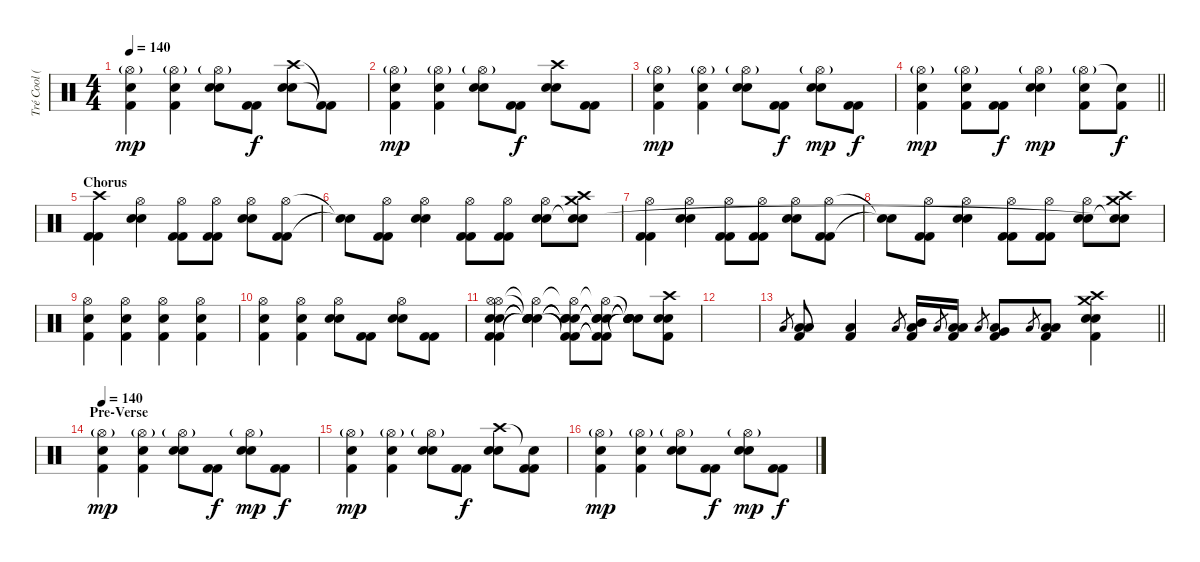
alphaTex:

\track ("Tré Cool (Drums)" "Tré Cool (") {instrument percussion}
\staff {score}
\articulation defaults
\ts (4 4)
\tempo 140
\clef neutral
\ks c
("Hi-Hat (open)"{g} "Electric Snare (hit)" "Kick (hit) 2").4{dy mp} ("Hi-Hat (open)"{g} "Electric Snare (hit)" "Kick (hit) 2").4 ("Hi-Hat (open)"{g} "Electric Snare (hit)" "Electric Snare (hit)").8 ("Kick (hit) 2" "Kick (hit) 2").8{dy f} ("Crash high (hit)" "Electric Snare (hit)" "Electric Snare (hit)").8 ("Kick (hit) 2"{t} "Kick (hit) 2"{t}).8 |
("Hi-Hat (open)"{g} "Electric Snare (hit)" "Kick (hit) 2").4{dy mp} ("Hi-Hat (open)"{g} "Electric Snare (hit)" "Kick (hit) 2").4 ("Hi-Hat (open)"{g} "Electric Snare (hit)" "Electric Snare (hit)").8 ("Kick (hit) 2" "Kick (hit) 2").8{dy f} ("Crash high (hit)" "Electric Snare (hit)" "Electric Snare (hit)").8 ("Kick (hit) 2" "Kick (hit) 2").8 |
("Hi-Hat (open)"{g} "Electric Snare (hit)" "Kick (hit) 2").4{dy mp} ("Hi-Hat (open)"{g} "Electric Snare (hit)" "Kick (hit) 2").4 ("Hi-Hat (open)"{g} "Electric Snare (hit)" "Electric Snare (hit)").8 ("Kick (hit) 2" "Kick (hit) 2").8{dy f} ("Hi-Hat (open)"{g} "Electric Snare (hit)" "Electric Snare (hit)").8{dy mp} ("Kick (hit) 2" "Kick (hit) 2").8{dy f} |
\barLineRight lightlight
("Hi-Hat (open)"{g} "Electric Snare (hit)" "Kick (hit) 2").4{dy mp} ("Hi-Hat (open)"{g} "Electric Snare (hit)" "Kick (hit) 2").8 ("Kick (hit) 2" "Kick (hit) 2").8{dy f} ("Hi-Hat (open)"{g} "Electric Snare (hit)" "Electric Snare (hit)").4{dy mp} ("Hi-Hat (open)"{g} "Electric Snare (hit)"{tr (38 64)} "Kick (hit) 2").8 ("Electric Snare (hit)"{t} "Kick (hit) 2").8{dy f} |
\section ("" "Chorus")
("Crash high (hit)" "Kick (hit) 2" "Kick (hit) 2").4 ("Hi-Hat (open)" "Electric Snare (hit)" "Electric Snare (hit)").4 ("Hi-Hat (open)" "Kick (hit) 2" "Kick (hit) 2").8 ("Hi-Hat (open)" "Kick (hit) 2" "Kick (hit) 2").8 ("Hi-Hat (open)" "Electric Snare (hit)" "Electric Snare (hit)").8 ("Hi-Hat (open)" "Kick (hit) 2" "Kick (hit) 2").8 |
("Snare (hit)"{t} "Snare (hit)"{t}).8 ("Hi-Hat (open)" "Kick (hit) 2" "Kick (hit) 2").8 ("Hi-Hat (open)" "Electric Snare (hit)" "Electric Snare (hit)").4 ("Hi-Hat (open)" "Kick (hit) 2" "Kick (hit) 2").8 ("Hi-Hat (open)" "Kick (hit) 2" "Kick (hit) 2").8 ("Hi-Hat (open)" "Electric Snare (hit)" "Electric Snare (hit)").8 ("Crash high (hit)" "Crash medium (hit)" "Snare (hit)"{t} "Snare (hit)").8 |
("Hi-Hat (open)" "Kick (hit) 2" "Kick (hit) 2").4 ("Hi-Hat (open)" "Electric Snare (hit)" "Electric Snare (hit)").4 ("Hi-Hat (open)" "Kick (hit) 2" "Kick (hit) 2").8 ("Hi-Hat (open)" "Kick (hit) 2" "Kick (hit) 2").8 ("Hi-Hat (open)" "Electric Snare (hit)" "Electric Snare (hit)").8 ("Hi-Hat (open)" "Kick (hit) 2" "Kick (hit) 2").8 |
("Snare (hit)"{t} "Snare (hit)"{t}).8 ("Hi-Hat (open)" "Kick (hit) 2" "Kick (hit) 2").8 ("Hi-Hat (open)" "Electric Snare (hit)" "Electric Snare (hit)").4 ("Hi-Hat (open)" "Kick (hit) 2" "Kick (hit) 2").8 ("Hi-Hat (open)" "Kick (hit) 2" "Kick (hit) 2").8 ("Hi-Hat (open)" "Electric Snare (hit)" "Electric Snare (hit)").8 ("Crash high (hit)" "Crash medium (hit)" "Snare (hit)"{t} "Snare (hit)"{t}).8 |
("Hi-Hat (open)" "Electric Snare (hit)" "Kick (hit) 2").4 ("Hi-Hat (open)" "Electric Snare (hit)" "Kick (hit) 2").4 ("Hi-Hat (open)" "Electric Snare (hit)" "Kick (hit) 2").4 ("Hi-Hat (open)" "Electric Snare (hit)" "Kick (hit) 2").4 |
("Hi-Hat (open)" "Electric Snare (hit)" "Kick (hit) 2").4 ("Hi-Hat (open)" "Electric Snare (hit)" "Kick (hit) 2").4 ("Hi-Hat (open)" "Electric Snare (hit)" "Electric Snare (hit)").8 ("Kick (hit) 2" "Kick (hit) 2").8 ("Hi-Hat (open)" "Electric Snare (hit)" "Electric Snare (hit)").8 ("Kick (hit) 2" "Kick (hit) 2").8 |
("Hi-Hat (open)" "Hi-Hat (open)" "Electric Snare (hit)" "Electric Snare (hit)" "Kick (hit) 2" "Kick (hit) 2").4 ("Hi-Hat (open)"{t} "Snare (hit)"{t} "Snare (hit)"{t} "Snare (hit)"{t} "Electric Snare (hit)"{t} "Electric Snare (hit)"{t}).4 ("Hi-Hat (open)"{t} "Snare (hit)"{t} "Snare (hit)"{t} "Snare (hit)"{t} "Kick (hit) 2"{t} "Kick (hit) 2"{t}).8 ("Hi-Hat (open)"{t} "Snare (hit)"{t} "Snare (hit)"{t} "Snare (hit)"{t} "Kick (hit) 2"{t} "Kick (hit) 2"{t}).8 ("Snare (hit)"{t} "Snare (hit)"{t} "Snare (hit)"{t} "Snare (hit)"{t} "Snare (hit)"{t} "Snare (hit)"{t}).8 ("Crash high (hit)" "Electric Snare (hit)" "Electric Snare (hit)" "Kick (hit) 2").8 |
|
\barLineRight lightlight "Low Tom (hit)".8{gr}
("Low Tom (hit)" "Low Tom (hit)" "Kick (hit) 2").8 ("Low Floor Tom (hit)" "Kick (hit) 2").4 "Low Tom (hit)".8{gr} ("Mid Tom (hit)" "Low Tom (hit)" "Kick (hit) 2").16 "Low Tom (hit)".8{gr} ("Low Tom (hit)" "Low Tom (hit)" "Kick (hit) 2").16 "Low Tom (hit)".8{gr} ("Very Low Tom (hit)" "Low Tom (hit)" "Kick (hit) 2").8 "Low Tom (hit)".8{gr} ("Low Floor Tom (hit)" "Low Tom (hit)" "Kick (hit) 2").8 ("Crash high (hit)" "Electric Snare (hit)" "Electric Snare (hit)" "Crash medium (hit)" "Kick (hit) 2").4 |
\section ("" "Pre-Verse")
\tempo 140
("Hi-Hat (open)"{g} "Electric Snare (hit)" "Kick (hit) 2").4{dy mp} ("Hi-Hat (open)"{g} "Electric Snare (hit)" "Kick (hit) 2").4 ("Hi-Hat (open)"{g} "Electric Snare (hit)" "Electric Snare (hit)").8 ("Kick (hit) 2" "Kick (hit) 2").8{dy f} ("Hi-Hat (open)"{g} "Electric Snare (hit)" "Electric Snare (hit)").8{dy mp} ("Kick (hit) 2" "Kick (hit) 2").8{dy f} |
("Hi-Hat (open)"{g} "Electric Snare (hit)" "Kick (hit) 2").4{dy mp} ("Hi-Hat (open)"{g} "Electric Snare (hit)" "Kick (hit) 2").4 ("Hi-Hat (open)"{g} "Electric Snare (hit)" "Electric Snare (hit)").8 ("Kick (hit) 2" "Kick (hit) 2").8{dy f} ("Crash high (hit)" "Electric Snare (hit)" "Electric Snare (hit)").8 ("Snare (hit)"{t} "Kick (hit) 2" "Kick (hit) 2").8 |
("Hi-Hat (open)"{g} "Electric Snare (hit)" "Kick (hit) 2").4{dy mp} ("Hi-Hat (open)"{g} "Electric Snare (hit)" "Kick (hit) 2").4 ("Hi-Hat (open)"{g} "Electric Snare (hit)" "Electric Snare (hit)").8 ("Kick (hit) 2" "Kick (hit) 2").8{dy f} ("Hi-Hat (open)"{g} "Electric Snare (hit)" "Electric Snare (hit)").8{dy mp} ("Kick (hit) 2" "Kick (hit) 2").8{dy f}
